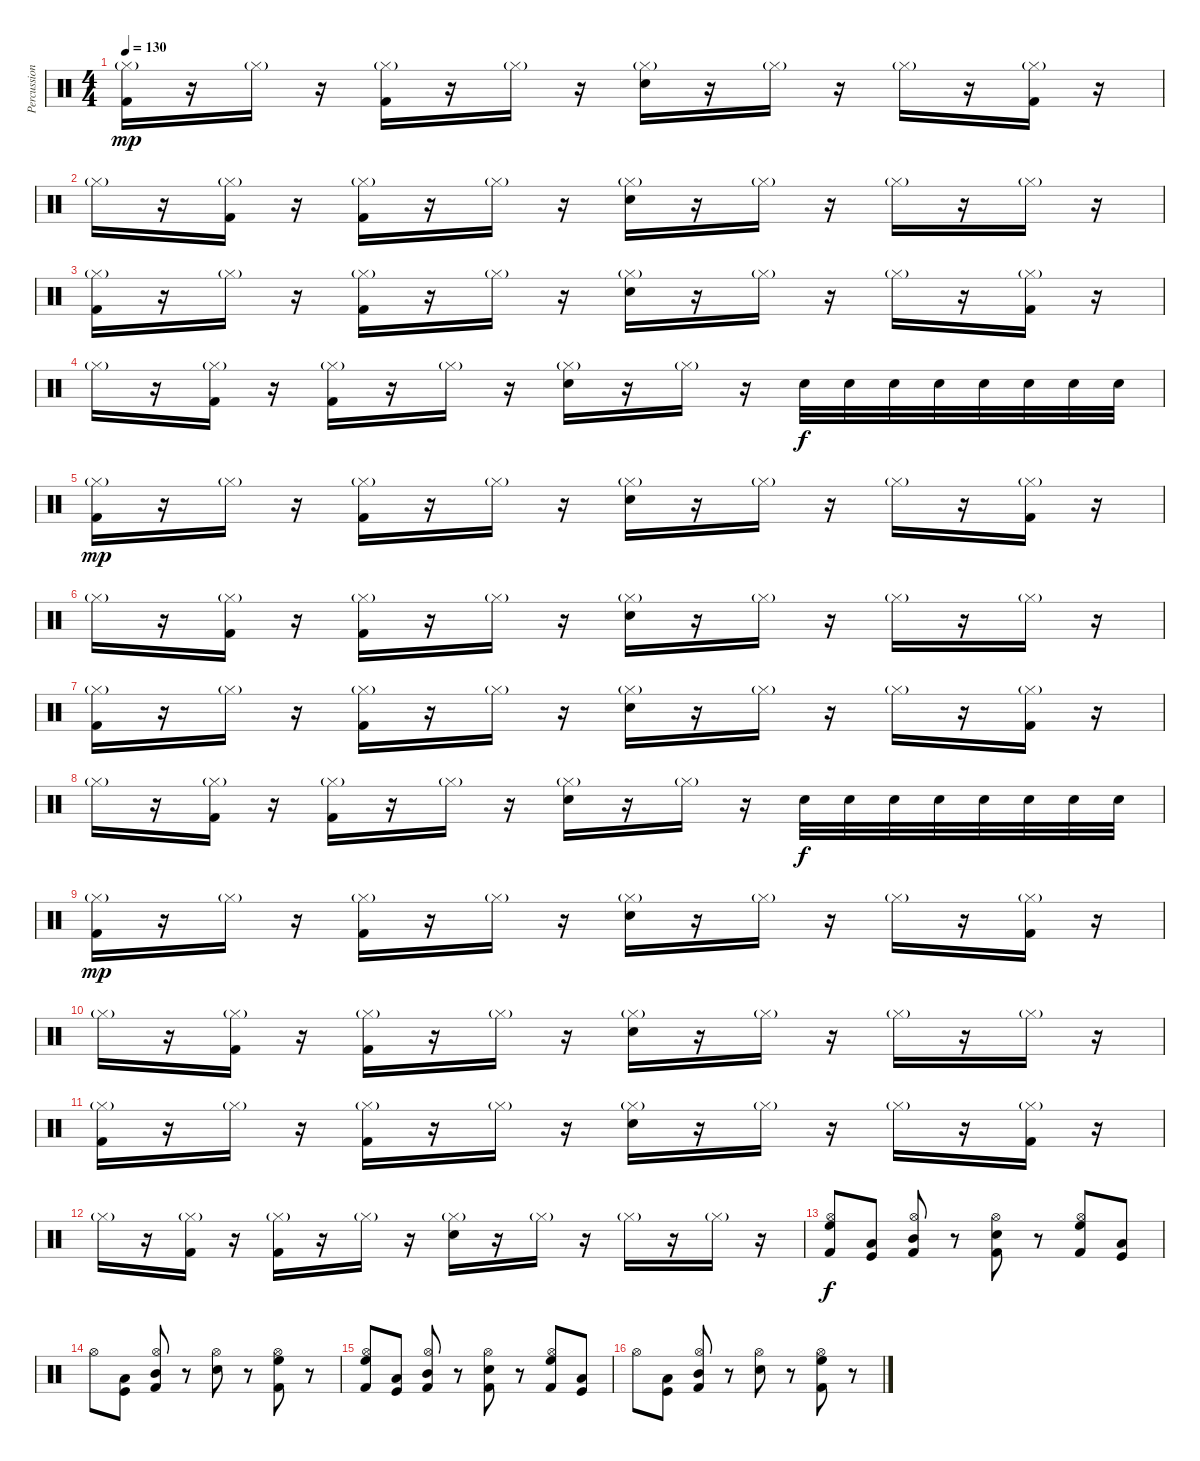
\track ("Percussion" "Percussion") {instrument percussion}
\staff {score}
\articulation defaults
\ts (4 4)
\tempo 130
\clef neutral
\ks c
("Hi-Hat (closed)"{g} "Kick (hit) 2").16{dy mp} r.16 "Hi-Hat (closed)"{g}.16 r.16 ("Hi-Hat (closed)"{g} "Kick (hit) 2").16 r.16 "Hi-Hat (closed)"{g}.16 r.16 ("Hi-Hat (closed)"{g} "Snare (hit) 2").16 r.16 "Hi-Hat (closed)"{g}.16 r.16 "Hi-Hat (closed)"{g}.16 r.16 ("Hi-Hat (closed)"{g} "Kick (hit) 2").16 r.16 |
"Hi-Hat (closed)"{g}.16 r.16 ("Hi-Hat (closed)"{g} "Kick (hit) 2").16 r.16 ("Hi-Hat (closed)"{g} "Kick (hit) 2").16 r.16 "Hi-Hat (closed)"{g}.16 r.16 ("Hi-Hat (closed)"{g} "Snare (hit) 2").16 r.16 "Hi-Hat (closed)"{g}.16 r.16 "Hi-Hat (closed)"{g}.16 r.16 "Hi-Hat (closed)"{g}.16 r.16 |
("Hi-Hat (closed)"{g} "Kick (hit) 2").16 r.16 "Hi-Hat (closed)"{g}.16 r.16 ("Hi-Hat (closed)"{g} "Kick (hit) 2").16 r.16 "Hi-Hat (closed)"{g}.16 r.16 ("Hi-Hat (closed)"{g} "Snare (hit) 2").16 r.16 "Hi-Hat (closed)"{g}.16 r.16 "Hi-Hat (closed)"{g}.16 r.16 ("Hi-Hat (closed)"{g} "Kick (hit) 2").16 r.16 |
"Hi-Hat (closed)"{g}.16 r.16 ("Hi-Hat (closed)"{g} "Kick (hit) 2").16 r.16 ("Hi-Hat (closed)"{g} "Kick (hit) 2").16 r.16 "Hi-Hat (closed)"{g}.16 r.16 ("Hi-Hat (closed)"{g} "Snare (hit) 2").16 r.16 "Hi-Hat (closed)"{g}.16 r.16 "Snare (hit) 2".32{dy f} "Snare (hit) 2".32 "Snare (hit) 2".32 "Snare (hit) 2".32 "Snare (hit) 2".32 "Snare (hit) 2".32 "Snare (hit) 2".32 "Snare (hit) 2".32 |
("Hi-Hat (closed)"{g} "Kick (hit) 2").16{dy mp} r.16 "Hi-Hat (closed)"{g}.16 r.16 ("Hi-Hat (closed)"{g} "Kick (hit) 2").16 r.16 "Hi-Hat (closed)"{g}.16 r.16 ("Hi-Hat (closed)"{g} "Snare (hit) 2").16 r.16 "Hi-Hat (closed)"{g}.16 r.16 "Hi-Hat (closed)"{g}.16 r.16 ("Hi-Hat (closed)"{g} "Kick (hit) 2").16 r.16 |
"Hi-Hat (closed)"{g}.16 r.16 ("Hi-Hat (closed)"{g} "Kick (hit) 2").16 r.16 ("Hi-Hat (closed)"{g} "Kick (hit) 2").16 r.16 "Hi-Hat (closed)"{g}.16 r.16 ("Hi-Hat (closed)"{g} "Snare (hit) 2").16 r.16 "Hi-Hat (closed)"{g}.16 r.16 "Hi-Hat (closed)"{g}.16 r.16 "Hi-Hat (closed)"{g}.16 r.16 |
("Hi-Hat (closed)"{g} "Kick (hit) 2").16 r.16 "Hi-Hat (closed)"{g}.16 r.16 ("Hi-Hat (closed)"{g} "Kick (hit) 2").16 r.16 "Hi-Hat (closed)"{g}.16 r.16 ("Hi-Hat (closed)"{g} "Snare (hit) 2").16 r.16 "Hi-Hat (closed)"{g}.16 r.16 "Hi-Hat (closed)"{g}.16 r.16 ("Hi-Hat (closed)"{g} "Kick (hit) 2").16 r.16 |
"Hi-Hat (closed)"{g}.16 r.16 ("Hi-Hat (closed)"{g} "Kick (hit) 2").16 r.16 ("Hi-Hat (closed)"{g} "Kick (hit) 2").16 r.16 "Hi-Hat (closed)"{g}.16 r.16 ("Hi-Hat (closed)"{g} "Snare (hit) 2").16 r.16 "Hi-Hat (closed)"{g}.16 r.16 "Snare (hit) 2".32{dy f} "Snare (hit) 2".32 "Snare (hit) 2".32 "Snare (hit) 2".32 "Snare (hit) 2".32 "Snare (hit) 2".32 "Snare (hit) 2".32 "Snare (hit) 2".32 |
("Hi-Hat (closed)"{g} "Kick (hit) 2").16{dy mp} r.16 "Hi-Hat (closed)"{g}.16 r.16 ("Hi-Hat (closed)"{g} "Kick (hit) 2").16 r.16 "Hi-Hat (closed)"{g}.16 r.16 ("Hi-Hat (closed)"{g} "Snare (hit) 2").16 r.16 "Hi-Hat (closed)"{g}.16 r.16 "Hi-Hat (closed)"{g}.16 r.16 ("Hi-Hat (closed)"{g} "Kick (hit) 2").16 r.16 |
"Hi-Hat (closed)"{g}.16 r.16 ("Hi-Hat (closed)"{g} "Kick (hit) 2").16 r.16 ("Hi-Hat (closed)"{g} "Kick (hit) 2").16 r.16 "Hi-Hat (closed)"{g}.16 r.16 ("Hi-Hat (closed)"{g} "Snare (hit) 2").16 r.16 "Hi-Hat (closed)"{g}.16 r.16 "Hi-Hat (closed)"{g}.16 r.16 "Hi-Hat (closed)"{g}.16 r.16 |
("Hi-Hat (closed)"{g} "Kick (hit) 2").16 r.16 "Hi-Hat (closed)"{g}.16 r.16 ("Hi-Hat (closed)"{g} "Kick (hit) 2").16 r.16 "Hi-Hat (closed)"{g}.16 r.16 ("Hi-Hat (closed)"{g} "Snare (hit) 2").16 r.16 "Hi-Hat (closed)"{g}.16 r.16 "Hi-Hat (closed)"{g}.16 r.16 ("Hi-Hat (closed)"{g} "Kick (hit) 2").16 r.16 |
"Hi-Hat (closed)"{g}.16 r.16 ("Hi-Hat (closed)"{g} "Kick (hit) 2").16 r.16 ("Hi-Hat (closed)"{g} "Kick (hit) 2").16 r.16 "Hi-Hat (closed)"{g}.16 r.16 ("Hi-Hat (closed)"{g} "Snare (hit) 2").16 r.16 "Hi-Hat (closed)"{g}.16 r.16 "Hi-Hat (closed)"{g}.16 r.16 "Hi-Hat (closed)"{g}.16 r.16 |
("Hi-Hat (open)" "High Floor Tom (hit)" "Kick (hit) 2").8{dy f} ("Low Tom (hit)" "Kick (hit)").8 ("Hi-Hat (open)" "Mid Tom (hit)" "Kick (hit) 2").8 r.8 ("Hi-Hat (open)" "Snare (hit) 2" "Kick (hit) 2").8 r.8 ("Hi-Hat (open)" "High Floor Tom (hit)" "Kick (hit) 2").8 ("Low Tom (hit)" "Kick (hit)").8 |
"Hi-Hat (open)".8 ("Low Tom (hit)" "Kick (hit)").8 ("Hi-Hat (open)" "Mid Tom (hit)" "Kick (hit) 2").8 r.8 ("Hi-Hat (open)" "Snare (hit) 2").8 r.8 ("Hi-Hat (open)" "High Floor Tom (hit)" "Kick (hit) 2").8 r.8 |
("Hi-Hat (open)" "High Floor Tom (hit)" "Kick (hit) 2").8 ("Low Tom (hit)" "Kick (hit)").8 ("Hi-Hat (open)" "Mid Tom (hit)" "Kick (hit) 2").8 r.8 ("Hi-Hat (open)" "Snare (hit) 2" "Kick (hit) 2").8 r.8 ("Hi-Hat (open)" "High Floor Tom (hit)" "Kick (hit) 2").8 ("Low Tom (hit)" "Kick (hit)").8 |
"Hi-Hat (open)".8 ("Low Tom (hit)" "Kick (hit)").8 ("Hi-Hat (open)" "Mid Tom (hit)" "Kick (hit) 2").8 r.8 ("Hi-Hat (open)" "Snare (hit) 2").8 r.8 ("Hi-Hat (open)" "High Floor Tom (hit)" "Kick (hit) 2").8 r.8
